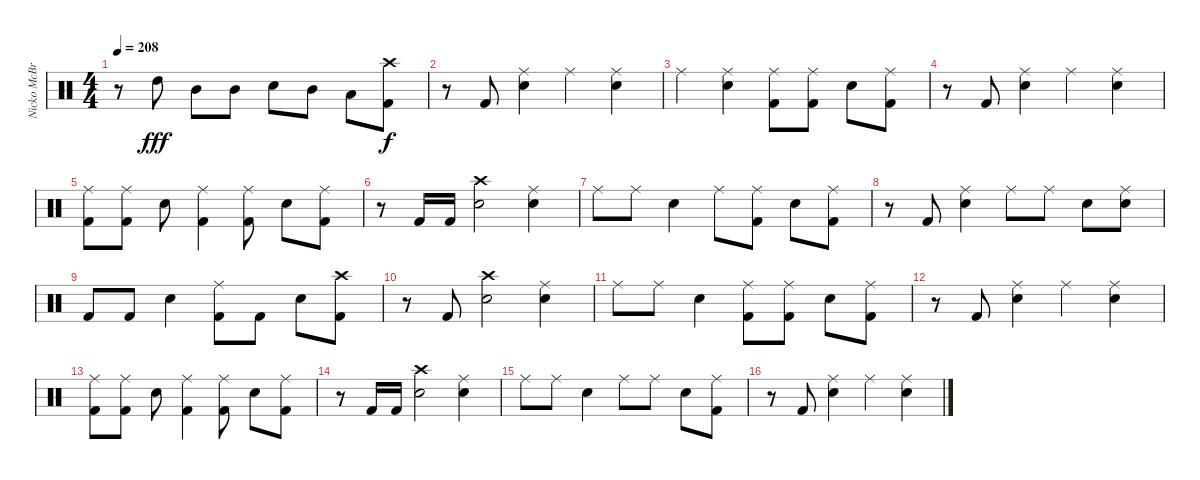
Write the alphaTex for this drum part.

\track ("Nicko McBrain" "Nicko McBr") {instrument percussion}
\staff {score}
\articulation defaults
\ts (4 4)
\tempo 208
\clef neutral
\ks c
r.8{dy f} "High Tom (hit)".8{dy fff} "Mid Tom (hit)".8 "Mid Tom (hit)".8 "Electric Snare (hit)".8 "Mid Tom (hit)".8 "Low Tom (hit)".8 ("Crash high (hit)" "Kick (hit) 2").8{dy f} |
r.8 "Kick (hit) 2".8 ("Ride (middle)" "Electric Snare (hit)").4 "Ride (middle)".4 ("Ride (middle)" "Electric Snare (hit)").4 |
"Ride (middle)".4 ("Ride (middle)" "Electric Snare (hit)").4 ("Ride (middle)" "Kick (hit) 2").8 ("Ride (middle)" "Kick (hit) 2").8 "Electric Snare (hit)".8 ("Ride (middle)" "Kick (hit) 2").8 |
r.8 "Kick (hit) 2".8 ("Ride (middle)" "Electric Snare (hit)").4 "Ride (middle)".4 ("Ride (middle)" "Electric Snare (hit)").4 |
("Ride (middle)" "Kick (hit) 2").8 ("Ride (middle)" "Kick (hit) 2").8 "Electric Snare (hit)".8 ("Ride (middle)" "Kick (hit) 2").4 ("Ride (middle)" "Kick (hit) 2").8 "Electric Snare (hit)".8 ("Ride (middle)" "Kick (hit) 2").8 |
r.8 "Kick (hit) 2".16 "Kick (hit) 2".16 ("Crash high (hit)" "Electric Snare (hit)").2 ("Ride (middle)" "Electric Snare (hit)").4 |
"Ride (middle)".8 "Ride (middle)".8 "Electric Snare (hit)".4 "Ride (middle)".8 ("Ride (middle)" "Kick (hit) 2").8 "Electric Snare (hit)".8 ("Ride (middle)" "Kick (hit) 2").8 |
r.8 "Kick (hit) 2".8 ("Ride (middle)" "Electric Snare (hit)").4 "Ride (middle)".8 "Ride (middle)".8 "Electric Snare (hit)".8 ("Ride (middle)" "Electric Snare (hit)").8 |
"Kick (hit) 2".8 "Kick (hit) 2".8 "Electric Snare (hit)".4 ("Ride (middle)" "Kick (hit) 2").8 "Kick (hit) 2".8 "Electric Snare (hit)".8 ("Crash high (hit)" "Kick (hit) 2").8 |
r.8 "Kick (hit) 2".8 ("Crash high (hit)" "Electric Snare (hit)").2 ("Ride (middle)" "Electric Snare (hit)").4 |
"Ride (middle)".8 "Ride (middle)".8 "Electric Snare (hit)".4 ("Ride (middle)" "Kick (hit) 2").8 ("Ride (middle)" "Kick (hit) 2").8 "Electric Snare (hit)".8 ("Ride (middle)" "Kick (hit) 2").8 |
r.8 "Kick (hit) 2".8 ("Ride (middle)" "Electric Snare (hit)").4 "Ride (middle)".4 ("Ride (middle)" "Electric Snare (hit)").4 |
("Ride (middle)" "Kick (hit) 2").8 ("Ride (middle)" "Kick (hit) 2").8 "Electric Snare (hit)".8 ("Ride (middle)" "Kick (hit) 2").4 ("Ride (middle)" "Kick (hit) 2").8 "Electric Snare (hit)".8 ("Ride (middle)" "Kick (hit) 2").8 |
r.8 "Kick (hit) 2".16 "Kick (hit) 2".16 ("Crash high (hit)" "Electric Snare (hit)").2 ("Ride (middle)" "Electric Snare (hit)").4 |
"Ride (middle)".8 "Ride (middle)".8 "Electric Snare (hit)".4 "Ride (middle)".8 "Ride (middle)".8 "Electric Snare (hit)".8 ("Ride (middle)" "Kick (hit) 2").8 |
r.8 "Kick (hit) 2".8 ("Ride (middle)" "Electric Snare (hit)").4 "Ride (middle)".4 ("Ride (middle)" "Electric Snare (hit)").4
